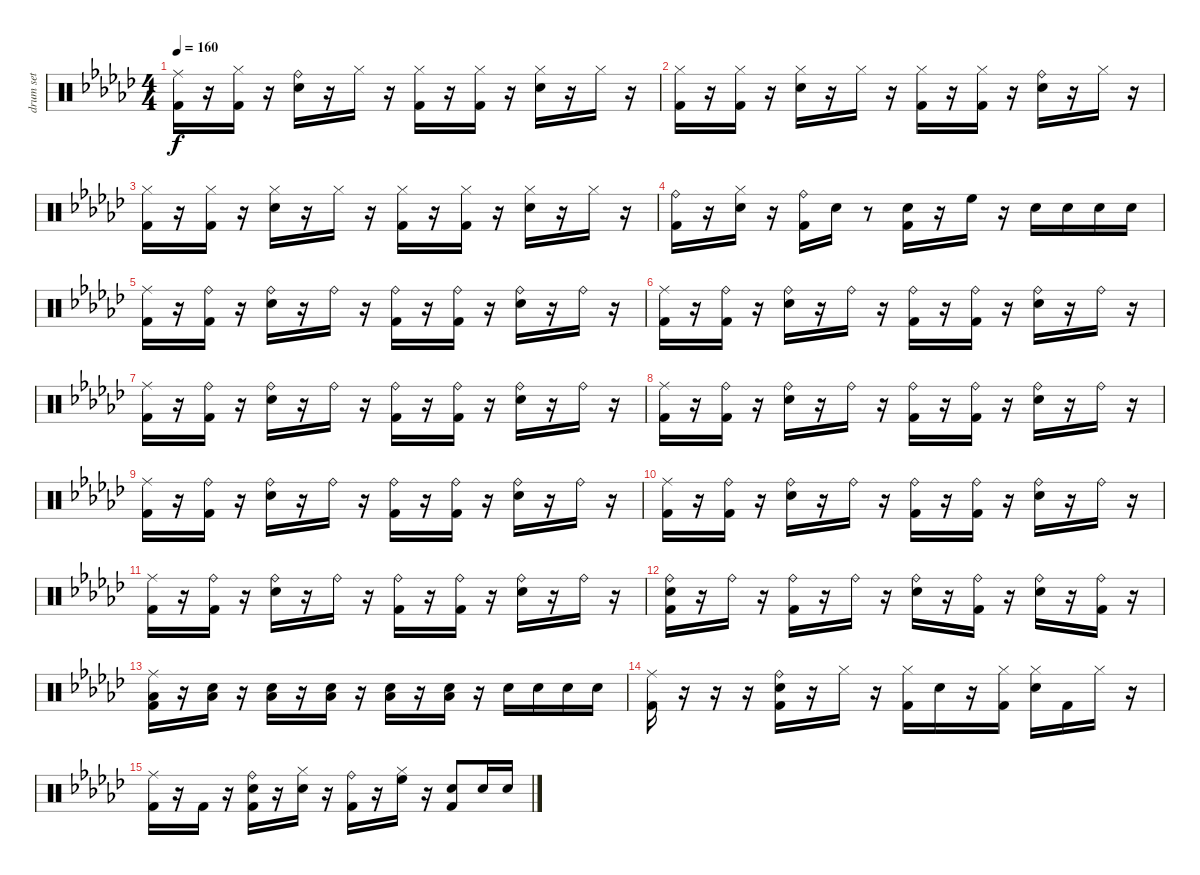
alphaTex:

\track ("drum set" "drum set") {instrument percussion}
\staff {score}
\articulation defaults
\ts (4 4)
\tempo 160
\clef neutral
\ks gb
("Ride (middle)" "Kick (hit) 2").16{dy f} r.16 ("Hi-Hat (closed)" "Kick (hit) 2").16 r.16 ("Ride (bell)" "Snare (hit) 2").16 r.16 "Hi-Hat (closed)".16 r.16 ("Hi-Hat (closed)" "Kick (hit) 2").16 r.16 ("Hi-Hat (closed)" "Kick (hit) 2").16 r.16 ("Hi-Hat (closed)" "Snare (hit) 2").16 r.16 "Hi-Hat (closed)".16 r.16 |
("Hi-Hat (closed)" "Kick (hit) 2").16 r.16 ("Hi-Hat (closed)" "Kick (hit) 2").16 r.16 ("Hi-Hat (closed)" "Snare (hit) 2").16 r.16 "Hi-Hat (closed)".16 r.16 ("Hi-Hat (closed)" "Kick (hit) 2").16 r.16 ("Hi-Hat (closed)" "Kick (hit) 2").16 r.16 ("Ride (bell)" "Snare (hit) 2").16 r.16 "Hi-Hat (closed)".16 r.16 |
("Hi-Hat (closed)" "Kick (hit) 2").16 r.16 ("Hi-Hat (closed)" "Kick (hit) 2").16 r.16 ("Hi-Hat (closed)" "Snare (hit) 2").16 r.16 "Hi-Hat (closed)".16 r.16 ("Hi-Hat (closed)" "Kick (hit) 2").16 r.16 ("Hi-Hat (closed)" "Kick (hit) 2").16 r.16 ("Hi-Hat (closed)" "Snare (hit) 2").16 r.16 "Hi-Hat (closed)".16 r.16 |
("Ride (bell)" "Kick (hit) 2").16 r.16 ("Hi-Hat (closed)" "Snare (hit) 2").16 r.16 ("Ride (bell)" "Kick (hit) 2").16 "Snare (hit) 2".16 r.8 ("Kick (hit) 2" "Snare (hit) 2").16 r.16 "High Floor Tom (hit)".16 r.16 "Snare (hit) 2".16 "Snare (hit) 2".16 "Snare (hit) 2".16 "Snare (hit) 2".16 |
("Ride (middle)" "Kick (hit) 2").16 r.16 ("Ride (bell)" "Kick (hit) 2").16 r.16 ("Ride (bell)" "Snare (hit) 2").16 r.16 "Ride (bell)".16 r.16 ("Ride (bell)" "Kick (hit) 2").16 r.16 ("Ride (bell)" "Kick (hit) 2").16 r.16 ("Ride (bell)" "Snare (hit) 2").16 r.16 "Ride (bell)".16 r.16 |
("Ride (middle)" "Kick (hit) 2").16 r.16 ("Ride (bell)" "Kick (hit) 2").16 r.16 ("Ride (bell)" "Snare (hit) 2").16 r.16 "Ride (bell)".16 r.16 ("Ride (bell)" "Kick (hit) 2").16 r.16 ("Ride (bell)" "Kick (hit) 2").16 r.16 ("Ride (bell)" "Snare (hit) 2").16 r.16 "Ride (bell)".16 r.16 |
("Ride (middle)" "Kick (hit) 2").16 r.16 ("Ride (bell)" "Kick (hit) 2").16 r.16 ("Ride (bell)" "Snare (hit) 2").16 r.16 "Ride (bell)".16 r.16 ("Ride (bell)" "Kick (hit) 2").16 r.16 ("Ride (bell)" "Kick (hit) 2").16 r.16 ("Ride (bell)" "Snare (hit) 2").16 r.16 "Ride (bell)".16 r.16 |
("Ride (middle)" "Kick (hit) 2").16 r.16 ("Ride (bell)" "Kick (hit) 2").16 r.16 ("Ride (bell)" "Snare (hit) 2").16 r.16 "Ride (bell)".16 r.16 ("Ride (bell)" "Kick (hit) 2").16 r.16 ("Ride (bell)" "Kick (hit) 2").16 r.16 ("Ride (bell)" "Snare (hit) 2").16 r.16 "Ride (bell)".16 r.16 |
("Ride (middle)" "Kick (hit) 2").16 r.16 ("Ride (bell)" "Kick (hit) 2").16 r.16 ("Ride (bell)" "Snare (hit) 2").16 r.16 "Ride (bell)".16 r.16 ("Ride (bell)" "Kick (hit) 2").16 r.16 ("Ride (bell)" "Kick (hit) 2").16 r.16 ("Ride (bell)" "Snare (hit) 2").16 r.16 "Ride (bell)".16 r.16 |
("Ride (middle)" "Kick (hit) 2").16 r.16 ("Ride (bell)" "Kick (hit) 2").16 r.16 ("Ride (bell)" "Snare (hit) 2").16 r.16 "Ride (bell)".16 r.16 ("Ride (bell)" "Kick (hit) 2").16 r.16 ("Ride (bell)" "Kick (hit) 2").16 r.16 ("Ride (bell)" "Snare (hit) 2").16 r.16 "Ride (bell)".16 r.16 |
("Ride (middle)" "Kick (hit) 2").16 r.16 ("Ride (bell)" "Kick (hit) 2").16 r.16 ("Ride (bell)" "Snare (hit) 2").16 r.16 "Ride (bell)".16 r.16 ("Ride (bell)" "Kick (hit) 2").16 r.16 ("Ride (bell)" "Kick (hit) 2").16 r.16 ("Ride (bell)" "Snare (hit) 2").16 r.16 "Ride (bell)".16 r.16 |
("Ride (bell)" "Snare (hit) 2" "Kick (hit) 2").16 r.16 "Ride (bell)".16 r.16 ("Ride (bell)" "Kick (hit) 2").16 r.16 "Ride (bell)".16 r.16 ("Ride (bell)" "Snare (hit) 2").16 r.16 ("Ride (bell)" "Kick (hit) 2").16 r.16 ("Ride (bell)" "Snare (hit) 2").16 r.16 ("Ride (bell)" "Kick (hit) 2").16 r.16 |
("Ride (middle)" "Kick (hit) 2" "Low Floor Tom (hit)").16 r.16 ("Low Tom (hit)" "Snare (hit) 2").16 r.16 ("Low Tom (hit)" "Snare (hit) 2").16 r.16 ("Low Tom (hit)" "Snare (hit) 2").16 r.16 ("Low Tom (hit)" "Snare (hit) 2").16 r.16 ("Low Tom (hit)" "Snare (hit) 2").16 r.16 "Snare (hit) 2".16 "Snare (hit) 2".16 "Snare (hit) 2".16 "Snare (hit) 2".16 |
("Ride (middle)" "Kick (hit) 2").16 r.16 r.16 r.16 ("Ride (bell)" "Snare (hit) 2" "Kick (hit) 2").16 r.16 "Hi-Hat (closed)".16 r.16 ("Hi-Hat (closed)" "Kick (hit) 2").16 "Snare (hit) 2".16 r.16 ("Hi-Hat (closed)" "Kick (hit) 2").16 ("Hi-Hat (closed)" "Snare (hit) 2").16 "Kick (hit) 2".16 "Hi-Hat (closed)".16 r.16 |
("Ride (middle)" "Kick (hit) 2").16 r.16 "Kick (hit) 2".16 r.16 ("Ride (bell)" "Snare (hit) 2" "Kick (hit) 2").16 r.16 ("Hi-Hat (closed)" "Snare (hit) 2").16 r.16 ("Ride (bell)" "Kick (hit) 2").16 r.16 ("Hi-Hat (closed)" "High Floor Tom (hit)").16 r.16 ("Kick (hit) 2" "Snare (hit) 2").8 "Snare (hit) 2".16 "Snare (hit) 2".16
